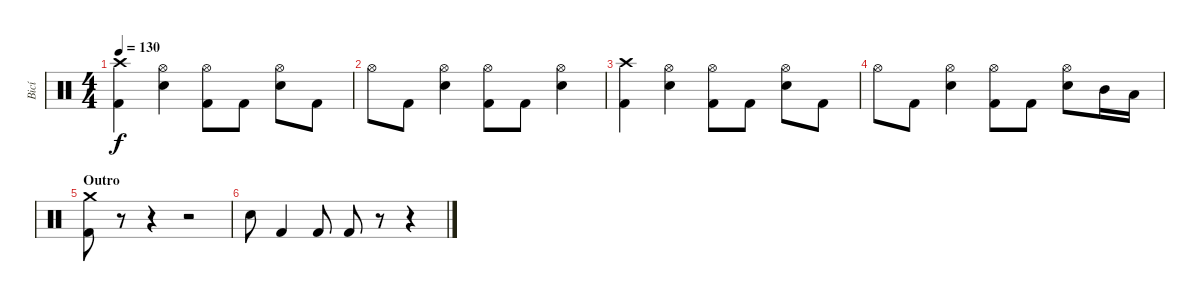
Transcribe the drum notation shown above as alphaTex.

\track ("Bicí" "Bicí") {instrument percussion}
\staff {score}
\articulation defaults
\ts (4 4)
\tempo 130
\clef neutral
\ks c
("Crash high (hit)" "Kick (hit) 2").4{dy f} ("Hi-Hat (open)" "Snare (hit) 2").4 ("Hi-Hat (open)" "Kick (hit) 2").8 "Kick (hit) 2".8 ("Hi-Hat (open)" "Snare (hit) 2").8 "Kick (hit) 2".8 |
"Hi-Hat (open)".8 "Kick (hit) 2".8 ("Hi-Hat (open)" "Snare (hit) 2").4 ("Hi-Hat (open)" "Kick (hit) 2").8 "Kick (hit) 2".8 ("Hi-Hat (open)" "Snare (hit) 2").4 |
("Crash high (hit)" "Kick (hit) 2").4 ("Hi-Hat (open)" "Snare (hit) 2").4 ("Hi-Hat (open)" "Kick (hit) 2").8 "Kick (hit) 2".8 ("Hi-Hat (open)" "Snare (hit) 2").8 "Kick (hit) 2".8 |
"Hi-Hat (open)".8 "Kick (hit) 2".8 ("Hi-Hat (open)" "Snare (hit) 2").4 ("Hi-Hat (open)" "Kick (hit) 2").8 "Kick (hit) 2".8 ("Hi-Hat (open)" "Snare (hit) 2").8 "Mid Tom (hit)".16 "Low Tom (hit)".16 |
\section ("" "Outro")
("Crash medium (hit)" "Kick (hit) 2").8 r.8 r.4 r.2 |
"Snare (hit) 2".8 "Kick (hit) 2".4 "Kick (hit) 2".8 "Kick (hit) 2".8 r.8 r.4
